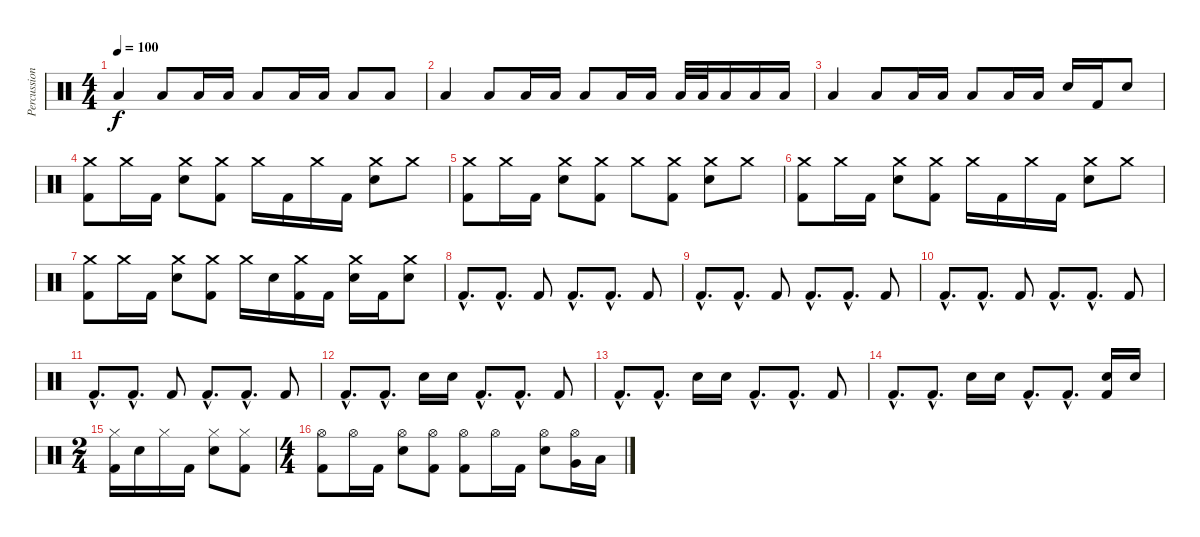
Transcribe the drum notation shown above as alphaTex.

\track ("Percussions" "Percussion") {instrument percussion}
\staff {score}
\articulation defaults
\ts (4 4)
\tempo 100
\clef neutral
\ks c "Low Floor Tom (hit)".4{dy f} "Low Floor Tom (hit)".8 "Low Floor Tom (hit)".16 "Low Floor Tom (hit)".16 "Low Floor Tom (hit)".8 "Low Floor Tom (hit)".16 "Low Floor Tom (hit)".16 "Low Floor Tom (hit)".8 "Low Floor Tom (hit)".8
|
"Low Floor Tom (hit)".4 "Low Floor Tom (hit)".8 "Low Floor Tom (hit)".16 "Low Floor Tom (hit)".16 "Low Floor Tom (hit)".8 "Low Floor Tom (hit)".16 "Low Floor Tom (hit)".16 "Low Floor Tom (hit)".32 "Low Floor Tom (hit)".32 "Low Floor Tom (hit)".16 "Low Floor Tom (hit)".16 "Low Floor Tom (hit)".16 |
"Low Floor Tom (hit)".4 "Low Floor Tom (hit)".8 "Low Floor Tom (hit)".16 "Low Floor Tom (hit)".16 "Low Floor Tom (hit)".8 "Low Floor Tom (hit)".16 "Low Floor Tom (hit)".16 "Electric Snare (hit)".16 "Kick (hit) 2".16 "Electric Snare (hit)".8 |
("Crash medium (hit)" "Kick (hit) 2").8 "Crash medium (hit)".16 "Kick (hit) 2".16 ("Electric Snare (hit)" "Crash medium (hit)").8 ("Crash medium (hit)" "Kick (hit) 2").8 "Crash medium (hit)".16 "Kick (hit) 2".16 "Crash medium (hit)".16 "Kick (hit) 2".16 ("Electric Snare (hit)" "Crash medium (hit)").8 "Crash medium (hit)".8 |
("Crash medium (hit)" "Kick (hit) 2").8 "Crash medium (hit)".16 "Kick (hit) 2".16 ("Electric Snare (hit)" "Crash medium (hit)").8 ("Crash medium (hit)" "Kick (hit) 2").8 "Crash medium (hit)".8 ("Crash medium (hit)" "Kick (hit) 2").8 ("Electric Snare (hit)" "Crash medium (hit)").8 "Crash medium (hit)".8 |
("Crash medium (hit)" "Kick (hit) 2").8 "Crash medium (hit)".16 "Kick (hit) 2".16 ("Electric Snare (hit)" "Crash medium (hit)").8 ("Crash medium (hit)" "Kick (hit) 2").8 "Crash medium (hit)".16 "Kick (hit) 2".16 "Crash medium (hit)".16 "Kick (hit) 2".16 ("Electric Snare (hit)" "Crash medium (hit)").8 "Crash medium (hit)".8 |
("Crash medium (hit)" "Kick (hit) 2").8 "Crash medium (hit)".16 "Kick (hit) 2".16 ("Electric Snare (hit)" "Crash medium (hit)").8 ("Crash medium (hit)" "Kick (hit) 2").8 "Crash medium (hit)".16 "Electric Snare (hit)".16 ("Crash medium (hit)" "Kick (hit) 2").16 "Kick (hit) 2".16 ("Electric Snare (hit)" "Crash medium (hit)").16 "Kick (hit) 2".16 ("Electric Snare (hit)" "Crash medium (hit)").8 |
"Kick (hit) 2"{hac}.8{d} "Kick (hit) 2"{hac}.8{d} "Kick (hit) 2".8 "Kick (hit) 2"{hac}.8{d} "Kick (hit) 2"{hac}.8{d} "Kick (hit) 2".8 |
"Kick (hit) 2"{hac}.8{d} "Kick (hit) 2"{hac}.8{d} "Kick (hit) 2".8 "Kick (hit) 2"{hac}.8{d} "Kick (hit) 2"{hac}.8{d} "Kick (hit) 2".8 |
"Kick (hit) 2"{hac}.8{d} "Kick (hit) 2"{hac}.8{d} "Kick (hit) 2".8 "Kick (hit) 2"{hac}.8{d} "Kick (hit) 2"{hac}.8{d} "Kick (hit) 2".8 |
"Kick (hit) 2"{hac}.8{d} "Kick (hit) 2"{hac}.8{d} "Kick (hit) 2".8 "Kick (hit) 2"{hac}.8{d} "Kick (hit) 2"{hac}.8{d} "Kick (hit) 2".8 |
"Kick (hit) 2"{hac}.8{d} "Kick (hit) 2"{hac}.8{d} "Electric Snare (hit)".16 "Electric Snare (hit)".16 "Kick (hit) 2"{hac}.8{d} "Kick (hit) 2"{hac}.8{d} "Kick (hit) 2".8 |
"Kick (hit) 2"{hac}.8{d} "Kick (hit) 2"{hac}.8{d} "Electric Snare (hit)".16 "Electric Snare (hit)".16 "Kick (hit) 2"{hac}.8{d} "Kick (hit) 2"{hac}.8{d} "Kick (hit) 2".8 |
"Kick (hit) 2"{hac}.8{d} "Kick (hit) 2"{hac}.8{d} "Electric Snare (hit)".16 "Electric Snare (hit)".16 "Kick (hit) 2"{hac}.8{d} "Kick (hit) 2"{hac}.8{d} ("Electric Snare (hit)" "Kick (hit) 2").16 "Electric Snare (hit)".16 |
\ts (2 4)
("Hi-Hat (closed)" "Kick (hit) 2").16 "Electric Snare (hit)".16 "Hi-Hat (closed)".16 "Kick (hit) 2".16 ("Electric Snare (hit)" "Hi-Hat (closed)").8 ("Hi-Hat (closed)" "Kick (hit) 2").8 |
\ts (4 4)
("Hi-Hat (open)" "Kick (hit) 2").8 "Hi-Hat (open)".16 "Kick (hit) 2".16 ("Electric Snare (hit)" "Hi-Hat (open)").8 ("Hi-Hat (open)" "Kick (hit) 2").8 ("Hi-Hat (open)" "Kick (hit) 2").8 "Hi-Hat (open)".16 "Kick (hit) 2".16 ("Electric Snare (hit)" "Hi-Hat (open)").8 ("Very Low Tom (hit)" "Hi-Hat (open)").16 "Low Floor Tom (hit)".16
